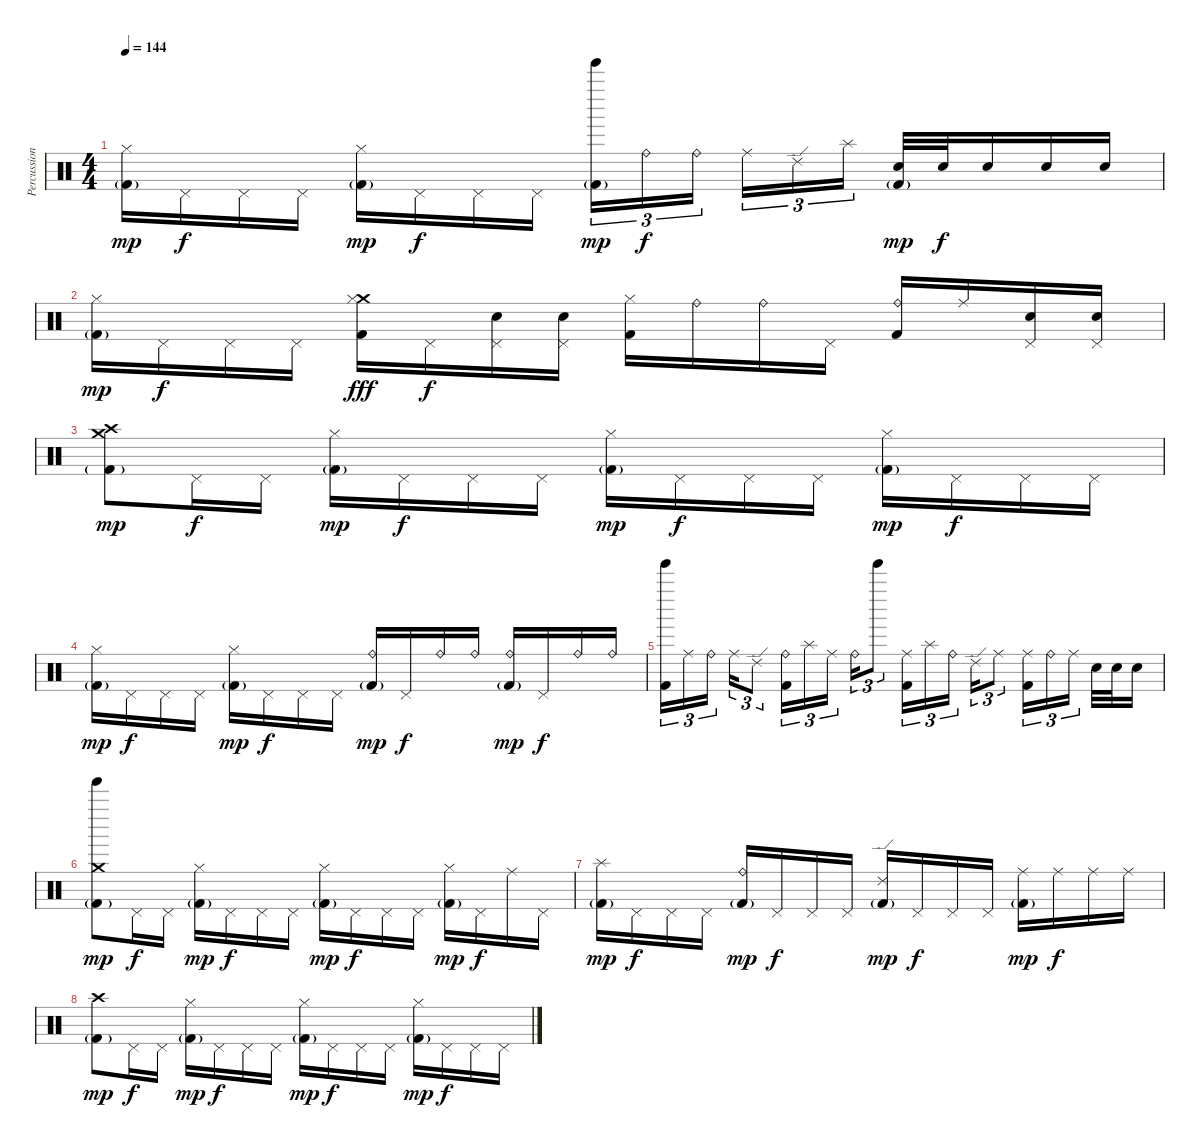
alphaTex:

\track ("Percussion" "Percussion") {instrument percussion}
\staff {score}
\articulation defaults
\ts (4 4)
\tempo 144
\clef neutral
\ks c
("Hi-Hat (closed)" "Kick (hit) 2"{g}).16{dy mp} "Pedal Hi-Hat (hit)".16{dy f} "Pedal Hi-Hat (hit)".16 "Pedal Hi-Hat (hit)".16 ("Hi-Hat (closed)" "Kick (hit) 2"{g}).16{dy mp} "Pedal Hi-Hat (hit)".16{dy f} "Pedal Hi-Hat (hit)".16 "Pedal Hi-Hat (hit)".16 ("Tinkle Bell (hit)" "Kick (hit) 2"{g}).16{tu (3 2) dy mp} "Ride (bell)".16{tu (3 2) dy f} "Ride (bell)".16{tu (3 2)} "Ride (middle)".16{tu (3 2)} "Ride (edge) 2".16{tu (3 2)} "Splash (hit)".16{tu (3 2)} ("Electric Snare (hit)" "Kick (hit) 2"{g}).32{dy mp} "Electric Snare (hit)".32{dy f} "Electric Snare (hit)".16 "Electric Snare (hit)".16 "Electric Snare (hit)".16 |
("Hi-Hat (closed)" "Kick (hit) 2"{g}).16{dy mp} "Pedal Hi-Hat (hit)".16{dy f} "Pedal Hi-Hat (hit)".16 "Pedal Hi-Hat (hit)".16 ("Crash medium (hit)" "Hi-Hat (closed)" "Kick (hit) 2").16{dy fff} "Pedal Hi-Hat (hit)".16{dy f} ("Pedal Hi-Hat (hit)" "Electric Snare (hit)").16 ("Pedal Hi-Hat (hit)" "Electric Snare (hit)").16 ("Hi-Hat (closed)" "Kick (hit) 2").16 "Ride (bell)".16 "Ride (bell)".16 "Pedal Hi-Hat (hit)".16 ("Ride (bell)" "Kick (hit) 2").16 "Ride (middle)".16 ("Pedal Hi-Hat (hit)" "Electric Snare (hit)").16 ("Pedal Hi-Hat (hit)" "Electric Snare (hit)").16 |
("Crash high (hit)" "Crash medium (hit)" "Kick (hit) 2"{g}).8{dy mp} "Pedal Hi-Hat (hit)".16{dy f} "Pedal Hi-Hat (hit)".16 ("Hi-Hat (closed)" "Kick (hit) 2"{g}).16{dy mp} "Pedal Hi-Hat (hit)".16{dy f} "Pedal Hi-Hat (hit)".16 "Pedal Hi-Hat (hit)".16 ("Hi-Hat (closed)" "Kick (hit) 2"{g}).16{dy mp} "Pedal Hi-Hat (hit)".16{dy f} "Pedal Hi-Hat (hit)".16 "Pedal Hi-Hat (hit)".16 ("Hi-Hat (closed)" "Kick (hit) 2"{g}).16{dy mp} "Pedal Hi-Hat (hit)".16{dy f} "Pedal Hi-Hat (hit)".16 "Pedal Hi-Hat (hit)".16 |
("Hi-Hat (closed)" "Kick (hit) 2"{g}).16{dy mp} "Pedal Hi-Hat (hit)".16{dy f} "Pedal Hi-Hat (hit)".16 "Pedal Hi-Hat (hit)".16 ("Hi-Hat (closed)" "Kick (hit) 2"{g}).16{dy mp} "Pedal Hi-Hat (hit)".16{dy f} "Pedal Hi-Hat (hit)".16 "Pedal Hi-Hat (hit)".16 ("Ride (bell)" "Kick (hit) 2"{g}).16{dy mp} "Pedal Hi-Hat (hit)".16{dy f} "Ride (bell)".16 "Ride (bell)".16 ("Ride (bell)" "Kick (hit) 2"{g}).16{dy mp} "Pedal Hi-Hat (hit)".16{dy f} "Ride (bell)".16 "Ride (bell)".16 |
("Tinkle Bell (hit)" "Kick (hit) 2").16{tu (3 2)} "Ride (middle)".16{tu (3 2)} "Ride (bell)".16{tu (3 2)} "Ride (middle)".16{tu (3 2)} "Ride (edge) 2".8{tu (3 2)} ("Ride (bell)" "Kick (hit) 2").16{tu (3 2)} "Splash (hit)".16{tu (3 2)} "Ride (middle)".16{tu (3 2)} "Ride (bell)".16{tu (3 2)} "Tinkle Bell (hit)".8{tu (3 2)} ("Ride (middle)" "Kick (hit) 2").16{tu (3 2)} "Splash (hit)".16{tu (3 2)} "Ride (bell)".16{tu (3 2)} "Ride (edge) 2".16{tu (3 2)} "Ride (middle)".8{tu (3 2)} ("Ride (middle)" "Kick (hit) 2").16{tu (3 2)} "Ride (bell)".16{tu (3 2)} "Ride (middle)".16{tu (3 2)} "Electric Snare (hit)".32 "Electric Snare (hit)".32 "Electric Snare (hit)".16 |
("Crash medium (hit)" "Tinkle Bell (hit)" "Kick (hit) 2"{g}).8{dy mp} "Pedal Hi-Hat (hit)".16{dy f} "Pedal Hi-Hat (hit)".16 ("Hi-Hat (closed)" "Kick (hit) 2"{g}).16{dy mp} "Pedal Hi-Hat (hit)".16{dy f} "Pedal Hi-Hat (hit)".16 "Pedal Hi-Hat (hit)".16 ("Hi-Hat (closed)" "Kick (hit) 2"{g}).16{dy mp} "Pedal Hi-Hat (hit)".16{dy f} "Pedal Hi-Hat (hit)".16 "Pedal Hi-Hat (hit)".16 ("Hi-Hat (closed)" "Kick (hit) 2"{g}).16{dy mp} "Pedal Hi-Hat (hit)".16{dy f} "Ride (middle)".16 "Pedal Hi-Hat (hit)".16 |
("Splash (hit)" "Kick (hit) 2"{g}).16{dy mp} "Pedal Hi-Hat (hit)".16{dy f} "Pedal Hi-Hat (hit)".16 "Pedal Hi-Hat (hit)".16 ("Ride (bell)" "Kick (hit) 2"{g}).16{dy mp} "Pedal Hi-Hat (hit)".16{dy f} "Pedal Hi-Hat (hit)".16 "Pedal Hi-Hat (hit)".16 ("Ride (edge) 2" "Kick (hit) 2"{g}).16{dy mp} "Pedal Hi-Hat (hit)".16{dy f} "Pedal Hi-Hat (hit)".16 "Pedal Hi-Hat (hit)".16 ("Ride (middle)" "Kick (hit) 2"{g}).16{dy mp} "Ride (middle)".16{dy f} "Ride (middle)".16 "Ride (middle)".16 |
("Crash high (hit)" "Kick (hit) 2"{g}).8{dy mp} "Pedal Hi-Hat (hit)".16{dy f} "Pedal Hi-Hat (hit)".16 ("Hi-Hat (closed)" "Kick (hit) 2"{g}).16{dy mp} "Pedal Hi-Hat (hit)".16{dy f} "Pedal Hi-Hat (hit)".16 "Pedal Hi-Hat (hit)".16 ("Hi-Hat (closed)" "Kick (hit) 2"{g}).16{dy mp} "Pedal Hi-Hat (hit)".16{dy f} "Pedal Hi-Hat (hit)".16 "Pedal Hi-Hat (hit)".16 ("Hi-Hat (closed)" "Kick (hit) 2"{g}).16{dy mp} "Pedal Hi-Hat (hit)".16{dy f} "Pedal Hi-Hat (hit)".16 "Pedal Hi-Hat (hit)".16
